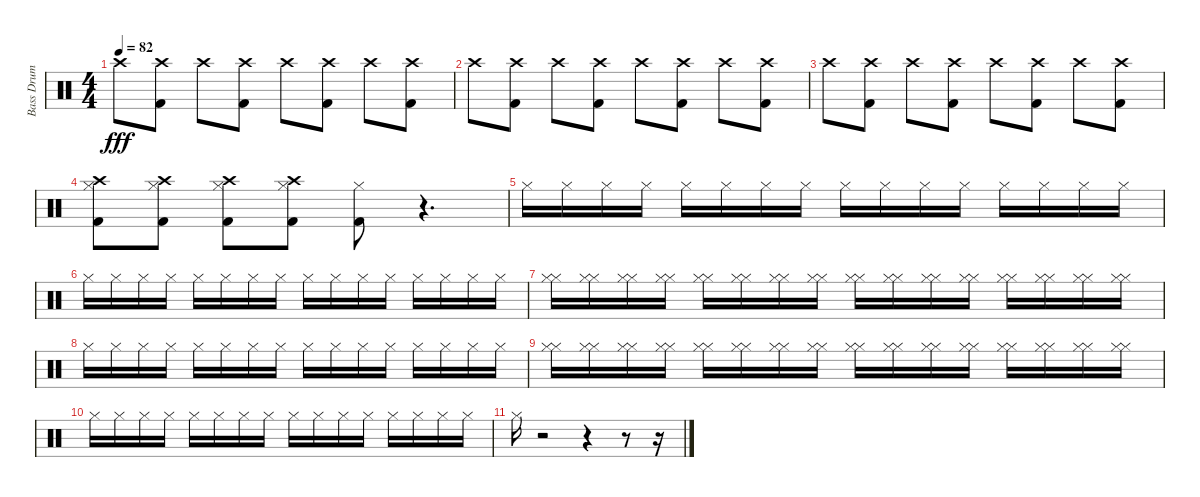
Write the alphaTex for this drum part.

\track ("Bass Drum" "Bass Drum") {instrument percussion}
\staff {score}
\articulation defaults
\ts (4 4)
\tempo 82
\clef neutral
\ks c "Crash high (hit)".8{dy fff}
("Kick (hit) 2" "Crash high (hit)").8 "Crash high (hit)".8 ("Kick (hit) 2" "Crash high (hit)").8 "Crash high (hit)".8 ("Kick (hit) 2" "Crash high (hit)").8 "Crash high (hit)".8 ("Kick (hit) 2" "Crash high (hit)").8 |
"Crash high (hit)".8 ("Kick (hit) 2" "Crash high (hit)").8 "Crash high (hit)".8 ("Kick (hit) 2" "Crash high (hit)").8 "Crash high (hit)".8 ("Kick (hit) 2" "Crash high (hit)").8 "Crash high (hit)".8 ("Kick (hit) 2" "Crash high (hit)").8 |
"Crash high (hit)".8 ("Kick (hit) 2" "Crash high (hit)").8 "Crash high (hit)".8 ("Kick (hit) 2" "Crash high (hit)").8 "Crash high (hit)".8 ("Kick (hit) 2" "Crash high (hit)").8 "Crash high (hit)".8 ("Kick (hit) 2" "Crash high (hit)").8 |
("Kick (hit) 2" "Hi-Hat (closed)" "Crash high (hit)").8 ("Kick (hit) 2" "Hi-Hat (closed)" "Crash high (hit)").8 ("Kick (hit) 2" "Hi-Hat (closed)" "Crash high (hit)").8 ("Kick (hit) 2" "Hi-Hat (closed)" "Crash high (hit)").8 ("Kick (hit) 2" "Hi-Hat (closed)").8 r.4{d} |
"Hi-Hat (closed)".16 "Hi-Hat (closed)".16 "Hi-Hat (closed)".16 "Hi-Hat (closed)".16 "Hi-Hat (closed)".16 "Hi-Hat (closed)".16 "Hi-Hat (closed)".16 "Hi-Hat (closed)".16 "Hi-Hat (closed)".16 "Hi-Hat (closed)".16 "Hi-Hat (closed)".16 "Hi-Hat (closed)".16 "Hi-Hat (closed)".16 "Hi-Hat (closed)".16 "Hi-Hat (closed)".16 "Hi-Hat (closed)".16 |
"Hi-Hat (closed)".16 "Hi-Hat (closed)".16 "Hi-Hat (closed)".16 "Hi-Hat (closed)".16 "Hi-Hat (closed)".16 "Hi-Hat (closed)".16 "Hi-Hat (closed)".16 "Hi-Hat (closed)".16 "Hi-Hat (closed)".16 "Hi-Hat (closed)".16 "Hi-Hat (closed)".16 "Hi-Hat (closed)".16 "Hi-Hat (closed)".16 "Hi-Hat (closed)".16 "Hi-Hat (closed)".16 "Hi-Hat (closed)".16 |
("Hi-Hat (closed)" "Hi-Hat (closed)").16 ("Hi-Hat (closed)" "Hi-Hat (closed)").16 ("Hi-Hat (closed)" "Hi-Hat (closed)").16 ("Hi-Hat (closed)" "Hi-Hat (closed)").16 ("Hi-Hat (closed)" "Hi-Hat (closed)").16 ("Hi-Hat (closed)" "Hi-Hat (closed)").16 ("Hi-Hat (closed)" "Hi-Hat (closed)").16 ("Hi-Hat (closed)" "Hi-Hat (closed)").16 ("Hi-Hat (closed)" "Hi-Hat (closed)").16 ("Hi-Hat (closed)" "Hi-Hat (closed)").16 ("Hi-Hat (closed)" "Hi-Hat (closed)").16 ("Hi-Hat (closed)" "Hi-Hat (closed)").16 ("Hi-Hat (closed)" "Hi-Hat (closed)").16 ("Hi-Hat (closed)" "Hi-Hat (closed)").16 ("Hi-Hat (closed)" "Hi-Hat (closed)").16 ("Hi-Hat (closed)" "Hi-Hat (closed)").16 |
"Hi-Hat (closed)".16 "Hi-Hat (closed)".16 "Hi-Hat (closed)".16 "Hi-Hat (closed)".16 "Hi-Hat (closed)".16 "Hi-Hat (closed)".16 "Hi-Hat (closed)".16 "Hi-Hat (closed)".16 "Hi-Hat (closed)".16 "Hi-Hat (closed)".16 "Hi-Hat (closed)".16 "Hi-Hat (closed)".16 "Hi-Hat (closed)".16 "Hi-Hat (closed)".16 "Hi-Hat (closed)".16 "Hi-Hat (closed)".16 |
("Hi-Hat (closed)" "Hi-Hat (closed)").16 ("Hi-Hat (closed)" "Hi-Hat (closed)").16 ("Hi-Hat (closed)" "Hi-Hat (closed)").16 ("Hi-Hat (closed)" "Hi-Hat (closed)").16 ("Hi-Hat (closed)" "Hi-Hat (closed)").16 ("Hi-Hat (closed)" "Hi-Hat (closed)").16 ("Hi-Hat (closed)" "Hi-Hat (closed)").16 ("Hi-Hat (closed)" "Hi-Hat (closed)").16 ("Hi-Hat (closed)" "Hi-Hat (closed)").16 ("Hi-Hat (closed)" "Hi-Hat (closed)").16 ("Hi-Hat (closed)" "Hi-Hat (closed)").16 ("Hi-Hat (closed)" "Hi-Hat (closed)").16 ("Hi-Hat (closed)" "Hi-Hat (closed)").16 ("Hi-Hat (closed)" "Hi-Hat (closed)").16 ("Hi-Hat (closed)" "Hi-Hat (closed)").16 ("Hi-Hat (closed)" "Hi-Hat (closed)").16 |
"Hi-Hat (closed)".16 "Hi-Hat (closed)".16 "Hi-Hat (closed)".16 "Hi-Hat (closed)".16 "Hi-Hat (closed)".16 "Hi-Hat (closed)".16 "Hi-Hat (closed)".16 "Hi-Hat (closed)".16 "Hi-Hat (closed)".16 "Hi-Hat (closed)".16 "Hi-Hat (closed)".16 "Hi-Hat (closed)".16 "Hi-Hat (closed)".16 "Hi-Hat (closed)".16 "Hi-Hat (closed)".16 "Hi-Hat (closed)".16 |
"Hi-Hat (closed)".16 r.2 r.4 r.8 r.16
